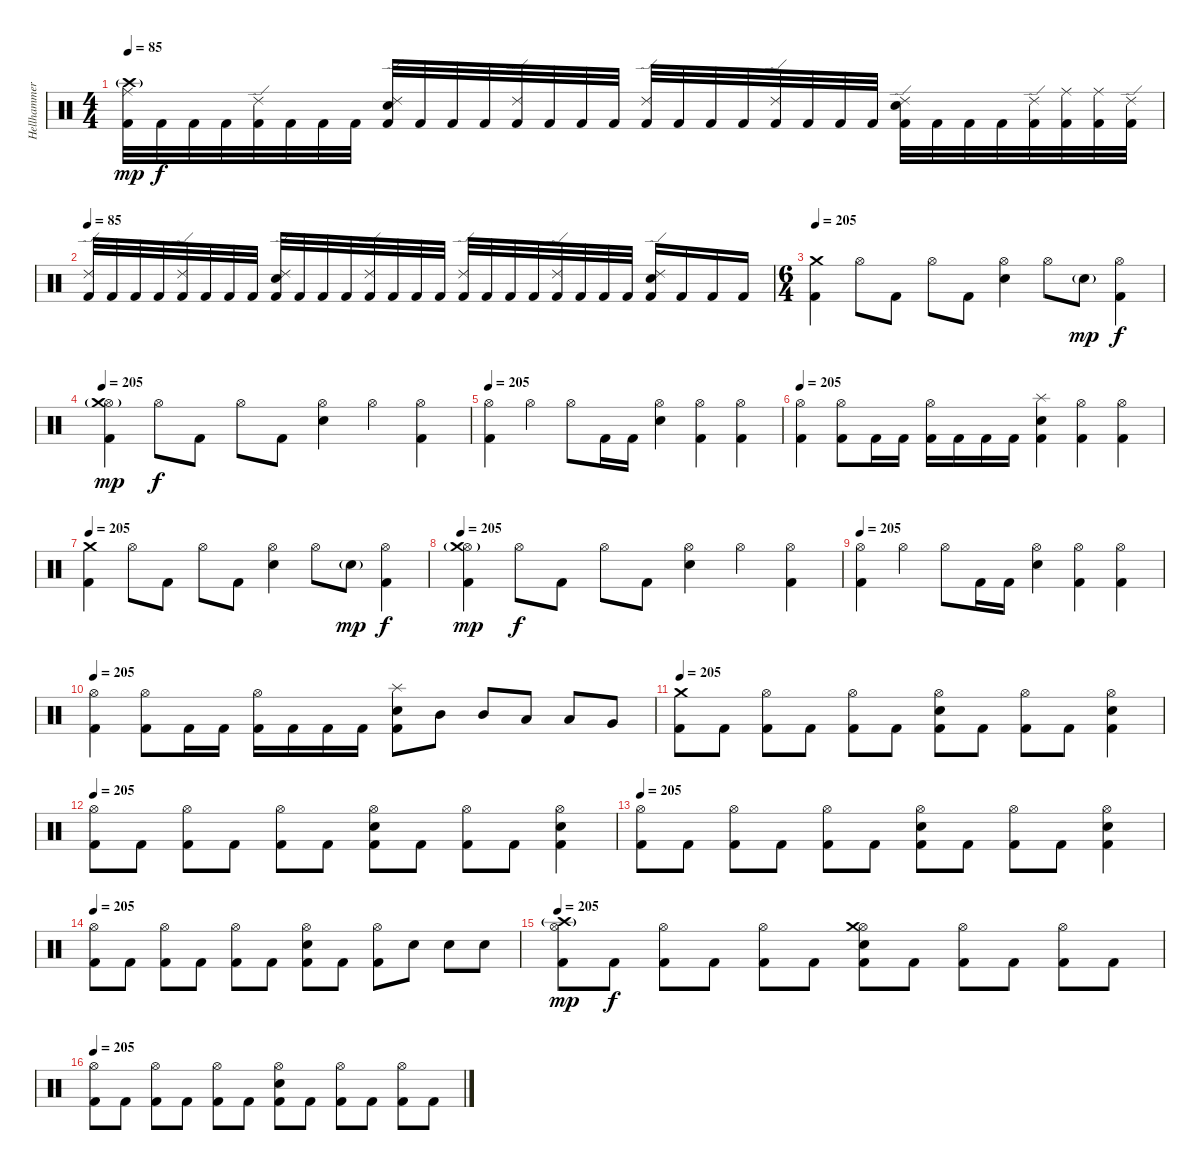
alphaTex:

\track ("Hellhammer" "Hellhammer") {instrument percussion}
\staff {score}
\articulation defaults
\ts (4 4)
\tempo 85
\clef neutral
\ks c
("Kick (hit) 2" "Ride (middle)" "Crash high (hit)"{g}).32{dy mp volume 11} "Kick (hit) 2".32{dy f} "Kick (hit) 2".32 "Kick (hit) 2".32 ("Kick (hit) 2" "Ride (edge) 2").32 "Kick (hit) 2".32 "Kick (hit) 2".32 "Kick (hit) 2".32 ("Kick (hit) 2" "Electric Snare (hit)" "Ride (edge) 2").32 "Kick (hit) 2".32 "Kick (hit) 2".32 "Kick (hit) 2".32 ("Kick (hit) 2" "Ride (edge) 2").32 "Kick (hit) 2".32 "Kick (hit) 2".32 "Kick (hit) 2".32 ("Kick (hit) 2" "Ride (edge) 2").32 "Kick (hit) 2".32 "Kick (hit) 2".32 "Kick (hit) 2".32 ("Kick (hit) 2" "Ride (edge) 2").32 "Kick (hit) 2".32 "Kick (hit) 2".32 "Kick (hit) 2".32 ("Kick (hit) 2" "Electric Snare (hit)" "Ride (edge) 2").32 "Kick (hit) 2".32 "Kick (hit) 2".32 "Kick (hit) 2".32 ("Kick (hit) 2" "Ride (edge) 2").32 ("Kick (hit) 2" "Ride (middle)").32 ("Kick (hit) 2" "Ride (middle)").32 ("Kick (hit) 2" "Ride (edge) 2").32 |
\tempo 85
("Kick (hit) 2" "Ride (edge) 2").32{volume 11} "Kick (hit) 2".32 "Kick (hit) 2".32 "Kick (hit) 2".32 ("Kick (hit) 2" "Ride (edge) 2").32 "Kick (hit) 2".32 "Kick (hit) 2".32 "Kick (hit) 2".32 ("Kick (hit) 2" "Electric Snare (hit)" "Ride (edge) 2").32 "Kick (hit) 2".32 "Kick (hit) 2".32 "Kick (hit) 2".32 ("Kick (hit) 2" "Ride (edge) 2").32 "Kick (hit) 2".32 "Kick (hit) 2".32 "Kick (hit) 2".32 ("Kick (hit) 2" "Ride (edge) 2").32 "Kick (hit) 2".32 "Kick (hit) 2".32 "Kick (hit) 2".32 ("Kick (hit) 2" "Ride (edge) 2").32 "Kick (hit) 2".32 "Kick (hit) 2".32 "Kick (hit) 2".32 ("Kick (hit) 2" "Electric Snare (hit)" "Ride (edge) 2").16 "Kick (hit) 2".16 "Kick (hit) 2".16 "Kick (hit) 2".16 |
\ts (6 4)
\tempo 205
("Kick (hit) 2" "Crash medium (hit)").4 "Hi-Hat (open)".8 "Kick (hit) 2".8 "Hi-Hat (open)".8 "Kick (hit) 2".8 ("Electric Snare (hit)" "Hi-Hat (open)").4 "Hi-Hat (open)".8 "Electric Snare (hit)"{g}.8{dy mp} ("Kick (hit) 2" "Hi-Hat (open)").4{dy f} |
\tempo 205
("Kick (hit) 2" "Hi-Hat (open)" "Crash medium (hit)"{g}).4{dy mp} "Hi-Hat (open)".8{dy f} "Kick (hit) 2".8 "Hi-Hat (open)".8 "Kick (hit) 2".8 ("Electric Snare (hit)" "Hi-Hat (open)").4 "Hi-Hat (open)".4 ("Kick (hit) 2" "Hi-Hat (open)").4 |
\tempo 205
("Kick (hit) 2" "Hi-Hat (open)").4 "Hi-Hat (open)".4 "Hi-Hat (open)".8 "Kick (hit) 2".16 "Kick (hit) 2".16 ("Electric Snare (hit)" "Hi-Hat (open)").4 ("Kick (hit) 2" "Hi-Hat (open)").4 ("Kick (hit) 2" "Hi-Hat (open)").4 |
\tempo 205
("Kick (hit) 2" "Hi-Hat (open)").4 ("Kick (hit) 2" "Hi-Hat (open)").8 "Kick (hit) 2".16 "Kick (hit) 2".16 ("Kick (hit) 2" "Hi-Hat (open)").16 "Kick (hit) 2".16 "Kick (hit) 2".16 "Kick (hit) 2".16 ("Kick (hit) 2" "Electric Snare (hit)" "Splash (hit)").4 ("Kick (hit) 2" "Hi-Hat (open)").4 ("Kick (hit) 2" "Hi-Hat (open)").4 |
\tempo 205
("Kick (hit) 2" "Crash medium (hit)").4 "Hi-Hat (open)".8 "Kick (hit) 2".8 "Hi-Hat (open)".8 "Kick (hit) 2".8 ("Electric Snare (hit)" "Hi-Hat (open)").4 "Hi-Hat (open)".8 "Electric Snare (hit)"{g}.8{dy mp} ("Kick (hit) 2" "Hi-Hat (open)").4{dy f} |
\tempo 205
("Kick (hit) 2" "Hi-Hat (open)" "Crash medium (hit)"{g}).4{dy mp} "Hi-Hat (open)".8{dy f} "Kick (hit) 2".8 "Hi-Hat (open)".8 "Kick (hit) 2".8 ("Electric Snare (hit)" "Hi-Hat (open)").4 "Hi-Hat (open)".4 ("Kick (hit) 2" "Hi-Hat (open)").4 |
\tempo 205
("Kick (hit) 2" "Hi-Hat (open)").4 "Hi-Hat (open)".4 "Hi-Hat (open)".8 "Kick (hit) 2".16 "Kick (hit) 2".16 ("Electric Snare (hit)" "Hi-Hat (open)").4 ("Kick (hit) 2" "Hi-Hat (open)").4 ("Kick (hit) 2" "Hi-Hat (open)").4 |
\tempo 205
("Kick (hit) 2" "Hi-Hat (open)").4 ("Kick (hit) 2" "Hi-Hat (open)").8 "Kick (hit) 2".16 "Kick (hit) 2".16 ("Kick (hit) 2" "Hi-Hat (open)").16 "Kick (hit) 2".16 "Kick (hit) 2".16 "Kick (hit) 2".16 ("Kick (hit) 2" "Electric Snare (hit)" "Splash (hit)").8 "Mid Tom (hit)".8 "Mid Tom (hit)".8 "Low Tom (hit)".8 "Low Tom (hit)".8 "Very Low Tom (hit)".8 |
\tempo 205
("Kick (hit) 2" "Crash medium (hit)").8 "Kick (hit) 2".8 ("Kick (hit) 2" "Hi-Hat (open)").8 "Kick (hit) 2".8 ("Kick (hit) 2" "Hi-Hat (open)").8 "Kick (hit) 2".8 ("Kick (hit) 2" "Electric Snare (hit)" "Hi-Hat (open)").8 "Kick (hit) 2".8 ("Kick (hit) 2" "Hi-Hat (open)").8 "Kick (hit) 2".8 ("Kick (hit) 2" "Electric Snare (hit)" "Hi-Hat (open)").4 |
\tempo 205
("Kick (hit) 2" "Hi-Hat (open)").8 "Kick (hit) 2".8 ("Kick (hit) 2" "Hi-Hat (open)").8 "Kick (hit) 2".8 ("Kick (hit) 2" "Hi-Hat (open)").8 "Kick (hit) 2".8 ("Kick (hit) 2" "Electric Snare (hit)" "Hi-Hat (open)").8 "Kick (hit) 2".8 ("Kick (hit) 2" "Hi-Hat (open)").8 "Kick (hit) 2".8 ("Kick (hit) 2" "Electric Snare (hit)" "Hi-Hat (open)").4 |
\tempo 205
("Kick (hit) 2" "Hi-Hat (open)").8 "Kick (hit) 2".8 ("Kick (hit) 2" "Hi-Hat (open)").8 "Kick (hit) 2".8 ("Kick (hit) 2" "Hi-Hat (open)").8 "Kick (hit) 2".8 ("Kick (hit) 2" "Electric Snare (hit)" "Hi-Hat (open)").8 "Kick (hit) 2".8 ("Kick (hit) 2" "Hi-Hat (open)").8 "Kick (hit) 2".8 ("Kick (hit) 2" "Electric Snare (hit)" "Hi-Hat (open)").4 |
\tempo 205
("Kick (hit) 2" "Hi-Hat (open)").8 "Kick (hit) 2".8 ("Kick (hit) 2" "Hi-Hat (open)").8 "Kick (hit) 2".8 ("Kick (hit) 2" "Hi-Hat (open)").8 "Kick (hit) 2".8 ("Kick (hit) 2" "Electric Snare (hit)" "Hi-Hat (open)").8 "Kick (hit) 2".8 ("Kick (hit) 2" "Hi-Hat (open)").8 "Electric Snare (hit)".8 "Electric Snare (hit)".8 "Electric Snare (hit)".8 |
\tempo 205
("Kick (hit) 2" "Hi-Hat (open)" "Crash high (hit)"{g}).8{dy mp} "Kick (hit) 2".8{dy f} ("Kick (hit) 2" "Hi-Hat (open)").8 "Kick (hit) 2".8 ("Kick (hit) 2" "Hi-Hat (open)").8 "Kick (hit) 2".8 ("Kick (hit) 2" "Electric Snare (hit)" "Hi-Hat (open)" "Crash medium (hit)").8 "Kick (hit) 2".8 ("Kick (hit) 2" "Hi-Hat (open)").8 "Kick (hit) 2".8 ("Kick (hit) 2" "Hi-Hat (open)").8 "Kick (hit) 2".8 |
\tempo 205
("Kick (hit) 2" "Hi-Hat (open)").8 "Kick (hit) 2".8 ("Kick (hit) 2" "Hi-Hat (open)").8 "Kick (hit) 2".8 ("Kick (hit) 2" "Hi-Hat (open)").8 "Kick (hit) 2".8 ("Kick (hit) 2" "Electric Snare (hit)" "Hi-Hat (open)").8 "Kick (hit) 2".8 ("Kick (hit) 2" "Hi-Hat (open)").8 "Kick (hit) 2".8 ("Kick (hit) 2" "Hi-Hat (open)").8 "Kick (hit) 2".8
